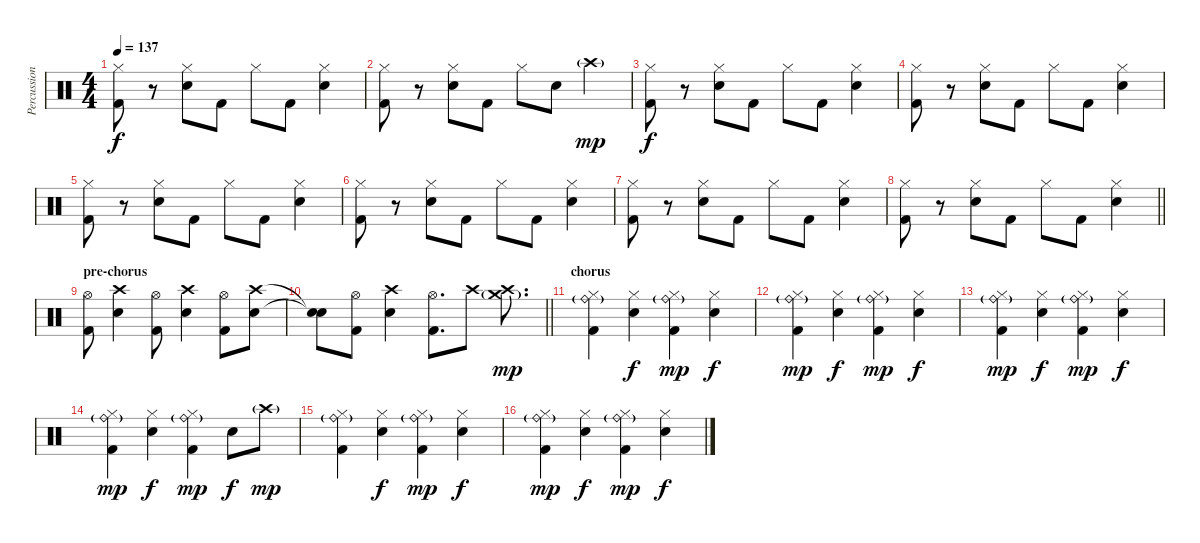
\track ("Percussion" "Percussion") {instrument percussion}
\staff {score}
\articulation defaults
\ts (4 4)
\tempo 137
\clef neutral
\ks c
("Hi-Hat (closed)" "Kick (hit) 2").8{dy f} r.8 ("Hi-Hat (closed)" "Snare (hit) 2").8 "Kick (hit) 2".8 "Hi-Hat (closed)".8 "Kick (hit) 2".8 ("Hi-Hat (closed)" "Snare (hit) 2").4 |
("Hi-Hat (closed)" "Kick (hit) 2").8 r.8 ("Hi-Hat (closed)" "Snare (hit) 2").8 "Kick (hit) 2".8 "Hi-Hat (closed)".8 "Snare (hit) 2".8 "Crash high (hit)"{g}.4{dy mp} |
("Hi-Hat (closed)" "Kick (hit) 2").8{dy f} r.8 ("Hi-Hat (closed)" "Snare (hit) 2").8 "Kick (hit) 2".8 "Hi-Hat (closed)".8 "Kick (hit) 2".8 ("Hi-Hat (closed)" "Snare (hit) 2").4 |
("Hi-Hat (closed)" "Kick (hit) 2").8 r.8 ("Hi-Hat (closed)" "Snare (hit) 2").8 "Kick (hit) 2".8 "Hi-Hat (closed)".8 "Kick (hit) 2".8 ("Hi-Hat (closed)" "Snare (hit) 2").4 |
("Hi-Hat (closed)" "Kick (hit) 2").8 r.8 ("Hi-Hat (closed)" "Snare (hit) 2").8 "Kick (hit) 2".8 "Hi-Hat (closed)".8 "Kick (hit) 2".8 ("Hi-Hat (closed)" "Snare (hit) 2").4 |
("Hi-Hat (closed)" "Kick (hit) 2").8 r.8 ("Hi-Hat (closed)" "Snare (hit) 2").8 "Kick (hit) 2".8 "Hi-Hat (closed)".8 "Kick (hit) 2".8 ("Hi-Hat (closed)" "Snare (hit) 2").4 |
("Hi-Hat (closed)" "Kick (hit) 2").8 r.8 ("Hi-Hat (closed)" "Snare (hit) 2").8 "Kick (hit) 2".8 "Hi-Hat (closed)".8 "Kick (hit) 2".8 ("Hi-Hat (closed)" "Snare (hit) 2").4 |
\barLineRight lightlight
("Hi-Hat (closed)" "Kick (hit) 2").8 r.8 ("Hi-Hat (closed)" "Snare (hit) 2").8 "Kick (hit) 2".8 "Hi-Hat (closed)".8 "Kick (hit) 2".8 ("Hi-Hat (closed)" "Snare (hit) 2").4 |
\section ("" "pre-chorus")
("Hi-Hat (open)" "Kick (hit) 2").8 ("Crash high (hit)" "Snare (hit) 2").4 ("Hi-Hat (open)" "Kick (hit) 2").8 ("Crash high (hit)" "Snare (hit) 2").4 ("Hi-Hat (open)" "Kick (hit) 2").8 ("Crash high (hit)" "Snare (hit) 2").8 |
\barLineRight lightlight
("Snare (hit)"{t} "Snare (hit)"{t}).8 ("Hi-Hat (open)" "Kick (hit) 2").8 ("Crash high (hit)" "Snare (hit) 2").4 ("Hi-Hat (open)" "Kick (hit) 2").8{d} "Crash high (hit)".8 ("Crash medium (hit)"{g} "Crash high (hit)").8{d dy mp} |
\section ("" "chorus")
("Hi-Hat (closed)" "Ride (bell)"{g} "Kick (hit) 2").4 ("Hi-Hat (closed)" "Snare (hit) 2").4{dy f} ("Hi-Hat (closed)" "Ride (bell)"{g} "Kick (hit) 2").4{dy mp} ("Hi-Hat (closed)" "Snare (hit) 2").4{dy f} |
("Hi-Hat (closed)" "Ride (bell)"{g} "Kick (hit) 2").4{dy mp} ("Hi-Hat (closed)" "Snare (hit) 2").4{dy f} ("Hi-Hat (closed)" "Ride (bell)"{g} "Kick (hit) 2").4{dy mp} ("Hi-Hat (closed)" "Snare (hit) 2").4{dy f} |
("Hi-Hat (closed)" "Ride (bell)"{g} "Kick (hit) 2").4{dy mp} ("Hi-Hat (closed)" "Snare (hit) 2").4{dy f} ("Hi-Hat (closed)" "Ride (bell)"{g} "Kick (hit) 2").4{dy mp} ("Hi-Hat (closed)" "Snare (hit) 2").4{dy f} |
("Hi-Hat (closed)" "Ride (bell)"{g} "Kick (hit) 2").4{dy mp} ("Hi-Hat (closed)" "Snare (hit) 2").4{dy f} ("Hi-Hat (closed)" "Ride (bell)"{g} "Kick (hit) 2").4{dy mp} "Snare (hit) 2".8{dy f} "Crash high (hit)"{g}.8{dy mp} |
("Hi-Hat (closed)" "Ride (bell)"{g} "Kick (hit) 2").4 ("Hi-Hat (closed)" "Snare (hit) 2").4{dy f} ("Hi-Hat (closed)" "Ride (bell)"{g} "Kick (hit) 2").4{dy mp} ("Hi-Hat (closed)" "Snare (hit) 2").4{dy f} |
("Hi-Hat (closed)" "Ride (bell)"{g} "Kick (hit) 2").4{dy mp} ("Hi-Hat (closed)" "Snare (hit) 2").4{dy f} ("Hi-Hat (closed)" "Ride (bell)"{g} "Kick (hit) 2").4{dy mp} ("Hi-Hat (closed)" "Snare (hit) 2").4{dy f}
